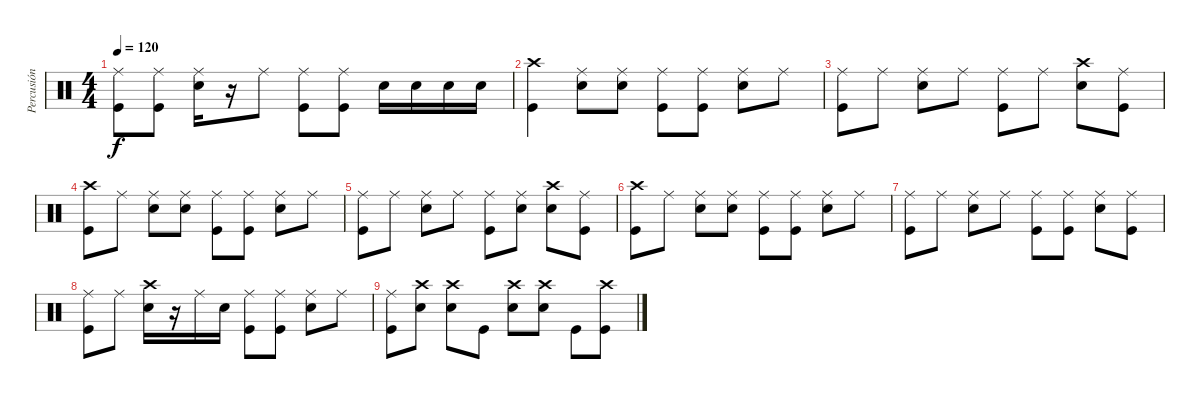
\track ("Percusión" "Percusión") {instrument percussion}
\staff {score}
\articulation defaults
\ts (4 4)
\tempo 120
\clef neutral
\ks c
("Ride (middle)" "Kick (hit)").8{dy f} ("Ride (middle)" "Kick (hit)").8 ("Ride (middle)" "Snare (hit) 2").16 r.16 "Ride (middle)".8 ("Ride (middle)" "Kick (hit)").8 ("Ride (middle)" "Kick (hit)").8 "Snare (hit) 2".16 "Snare (hit) 2".16 "Snare (hit) 2".16 "Snare (hit) 2".16 |
("Crash high (hit)" "Kick (hit)").4 ("Ride (middle)" "Snare (hit) 2").8 ("Ride (middle)" "Snare (hit) 2").8 ("Ride (middle)" "Kick (hit)").8 ("Ride (middle)" "Kick (hit)").8 ("Ride (middle)" "Snare (hit) 2").8 "Ride (middle)".8 |
("Ride (middle)" "Kick (hit)").8 "Ride (middle)".8 ("Ride (middle)" "Snare (hit) 2").8 "Ride (middle)".8 ("Ride (middle)" "Kick (hit)").8 "Ride (middle)".8 ("Crash high (hit)" "Snare (hit) 2").8 ("Ride (middle)" "Kick (hit)").8 |
("Crash high (hit)" "Kick (hit)").8 "Ride (middle)".8 ("Ride (middle)" "Snare (hit) 2").8 ("Ride (middle)" "Snare (hit) 2").8 ("Ride (middle)" "Kick (hit)").8 ("Ride (middle)" "Kick (hit)").8 ("Ride (middle)" "Snare (hit) 2").8 "Ride (middle)".8 |
("Ride (middle)" "Kick (hit)").8 "Ride (middle)".8 ("Ride (middle)" "Snare (hit) 2").8 "Ride (middle)".8 ("Ride (middle)" "Kick (hit)").8 ("Ride (middle)" "Snare (hit) 2").8 ("Crash high (hit)" "Snare (hit) 2").8 ("Ride (middle)" "Kick (hit)").8 |
("Crash high (hit)" "Kick (hit)").8 "Ride (middle)".8 ("Ride (middle)" "Snare (hit) 2").8 ("Ride (middle)" "Snare (hit) 2").8 ("Ride (middle)" "Kick (hit)").8 ("Ride (middle)" "Kick (hit)").8 ("Ride (middle)" "Snare (hit) 2").8 "Ride (middle)".8 |
("Ride (middle)" "Kick (hit)").8 "Ride (middle)".8 ("Ride (middle)" "Snare (hit) 2").8 "Ride (middle)".8 ("Ride (middle)" "Kick (hit)").8 ("Ride (middle)" "Kick (hit)").8 ("Ride (middle)" "Snare (hit) 2").8 ("Ride (middle)" "Kick (hit)").8 |
("Ride (middle)" "Kick (hit)").8 "Ride (middle)".8 ("Crash high (hit)" "Snare (hit) 2").16 r.16 "Ride (middle)".16 "Snare (hit) 2".16 ("Ride (middle)" "Kick (hit)").8 ("Ride (middle)" "Kick (hit)").8 ("Ride (middle)" "Snare (hit) 2").8 "Ride (middle)".8 |
("Ride (middle)" "Kick (hit)").8 ("Crash high (hit)" "Snare (hit) 2").8 ("Crash high (hit)" "Snare (hit) 2").8 "Kick (hit)".8 ("Crash high (hit)" "Snare (hit) 2").8 ("Crash high (hit)" "Snare (hit) 2").8 "Kick (hit)".8 ("Crash high (hit)" "Kick (hit)").8
